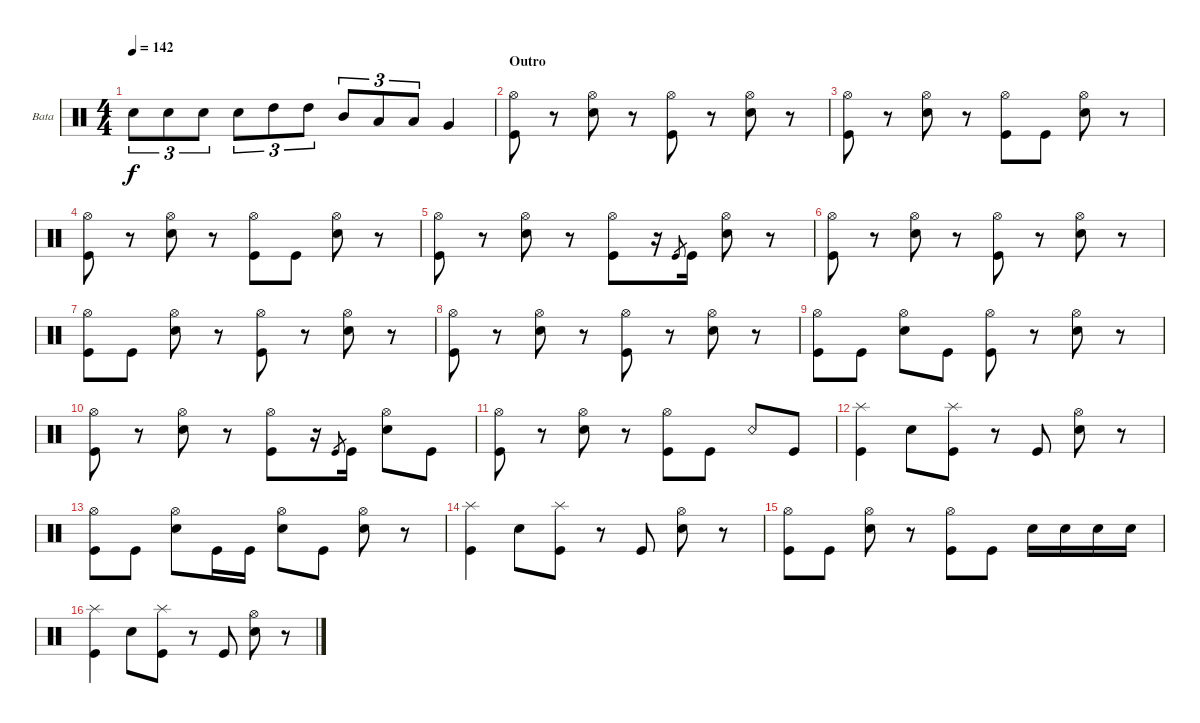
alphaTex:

\bracketExtendMode groupsimilarinstruments
\firstSystemTrackNameOrientation horizontal
\otherSystemsTrackNameOrientation horizontal
\track ("Bateria" "Bata") {instrument percussion}
\staff {score}
\articulation defaults
\ts (4 4)
\tempo 142
\clef neutral
\ks c "Snare (hit) 2".8{tu (3 2) dy f} "Snare (hit) 2".8{tu (3 2)} "Snare (hit) 2".8{tu (3 2)} "Snare (hit) 2".8{tu (3 2)} "High Tom (hit)".8{tu (3 2)} "High Tom (hit)".8{tu (3 2)} "Mid Tom (hit)".8{tu (3 2)} "Low Tom (hit)".8{tu (3 2)} "Low Tom (hit)".8{tu (3 2)} "Very Low Tom (hit)".4
|
\section ("" "Outro")
("Kick (hit)" "Hi-Hat (open)").8 r.8 ("Hi-Hat (open)" "Snare (hit) 2").8 r.8 ("Hi-Hat (open)" "Kick (hit)").8 r.8 ("Hi-Hat (open)" "Snare (hit) 2").8 r.8 |
("Kick (hit)" "Hi-Hat (open)").8 r.8 ("Hi-Hat (open)" "Snare (hit) 2").8 r.8 ("Hi-Hat (open)" "Kick (hit)").8 "Kick (hit)".8 ("Hi-Hat (open)" "Snare (hit) 2").8 r.8 |
("Kick (hit)" "Hi-Hat (open)").8 r.8 ("Hi-Hat (open)" "Snare (hit) 2").8 r.8 ("Hi-Hat (open)" "Kick (hit)").8 "Kick (hit)".8 ("Hi-Hat (open)" "Snare (hit) 2").8 r.8 |
("Kick (hit)" "Hi-Hat (open)").8 r.8 ("Hi-Hat (open)" "Snare (hit) 2").8 r.8 ("Hi-Hat (open)" "Kick (hit)").8 r.16 "Kick (hit)".8{gr} "Kick (hit)".16 ("Snare (hit) 2" "Hi-Hat (open)").8 r.8 |
("Kick (hit)" "Hi-Hat (open)").8 r.8 ("Hi-Hat (open)" "Snare (hit) 2").8 r.8 ("Hi-Hat (open)" "Kick (hit)").8 r.8 ("Hi-Hat (open)" "Snare (hit) 2").8 r.8 |
("Kick (hit)" "Hi-Hat (open)").8 "Kick (hit)".8 ("Hi-Hat (open)" "Snare (hit) 2").8 r.8 ("Hi-Hat (open)" "Kick (hit)").8 r.8 ("Hi-Hat (open)" "Snare (hit) 2").8 r.8 |
("Kick (hit)" "Hi-Hat (open)").8 r.8 ("Hi-Hat (open)" "Snare (hit) 2").8 r.8 ("Hi-Hat (open)" "Kick (hit)").8 r.8 ("Hi-Hat (open)" "Snare (hit) 2").8 r.8 |
("Kick (hit)" "Hi-Hat (open)").8 "Kick (hit)".8 ("Hi-Hat (open)" "Snare (hit) 2").8 "Kick (hit)".8 ("Hi-Hat (open)" "Kick (hit)").8 r.8 ("Hi-Hat (open)" "Snare (hit) 2").8 r.8 |
("Kick (hit)" "Hi-Hat (open)").8 r.8 ("Hi-Hat (open)" "Snare (hit) 2").8 r.8 ("Hi-Hat (open)" "Kick (hit)").8 r.16 "Kick (hit)".8{gr} "Kick (hit)".16 ("Snare (hit) 2" "Hi-Hat (open)").8 "Kick (hit)".8 |
("Kick (hit)" "Hi-Hat (open)").8 r.8 ("Hi-Hat (open)" "Snare (hit) 2").8 r.8 ("Hi-Hat (open)" "Kick (hit)").8 "Kick (hit)".8 "Snare (rim shot)".8 "Kick (hit)".8 |
("Splash (hit)" "Kick (hit)").4 "Snare (hit) 2".8 ("Splash (hit)" "Kick (hit)").8 r.8 "Kick (hit)".8 ("Snare (hit) 2" "Hi-Hat (open)").8 r.8 |
("Kick (hit)" "Hi-Hat (open)").8 "Kick (hit)".8 ("Hi-Hat (open)" "Snare (hit) 2").8 "Kick (hit)".16 "Kick (hit)".16 ("Hi-Hat (open)" "Snare (hit) 2").8 "Kick (hit)".8 ("Hi-Hat (open)" "Snare (hit) 2").8 r.8 |
("Splash (hit)" "Kick (hit)").4 "Snare (hit) 2".8 ("Splash (hit)" "Kick (hit)").8 r.8 "Kick (hit)".8 ("Snare (hit) 2" "Hi-Hat (open)").8 r.8 |
("Kick (hit)" "Hi-Hat (open)").8 "Kick (hit)".8 ("Hi-Hat (open)" "Snare (hit) 2").8 r.8 ("Hi-Hat (open)" "Kick (hit)").8 "Kick (hit)".8 "Snare (hit) 2".16 "Snare (hit) 2".16 "Snare (hit) 2".16 "Snare (hit) 2".16 |
("Splash (hit)" "Kick (hit)").4 "Snare (hit) 2".8 ("Splash (hit)" "Kick (hit)").8 r.8 "Kick (hit)".8 ("Snare (hit) 2" "Hi-Hat (open)").8 r.8
